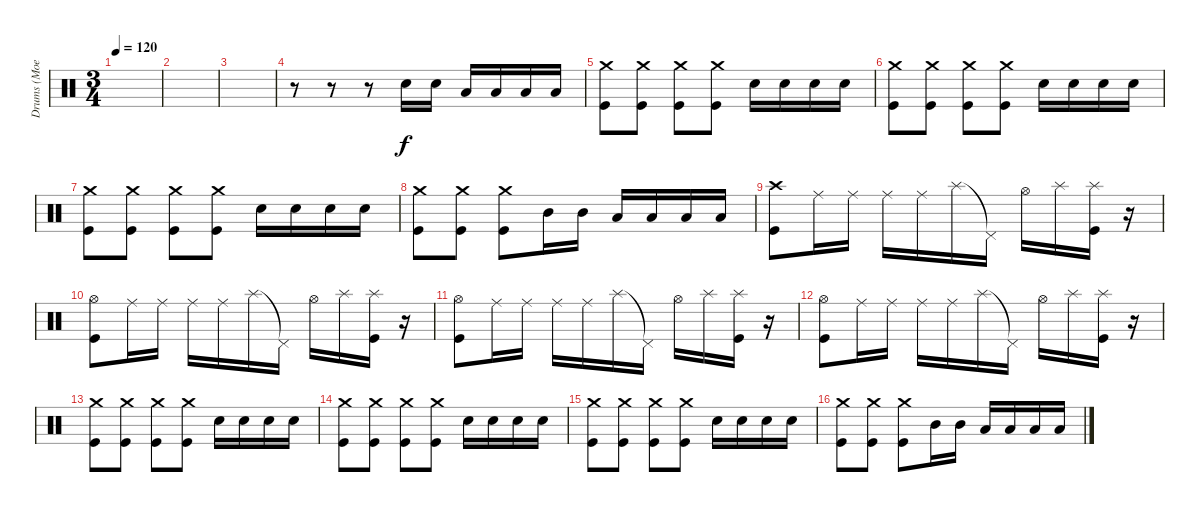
\track ("Drums (Moe)" "Drums (Moe") {instrument percussion}
\staff {score}
\articulation defaults
\ts (3 4)
\tempo 120
\clef neutral
\ks c
|
|
|
r.8 r.8 r.8 "Snare (hit) 2".16 "Snare (hit) 2".16 "Low Tom (hit)".16 "Low Tom (hit)".16 "Low Floor Tom (hit)".16 "Low Floor Tom (hit)".16 |
("Kick (hit)" "Crash medium (hit)").8 ("Kick (hit)" "Crash medium (hit)").8 ("Kick (hit)" "Crash medium (hit)").8 ("Kick (hit)" "Crash medium (hit)").8 "Snare (hit) 2".16 "Snare (hit) 2".16 "Snare (hit) 2".16 "Snare (hit) 2".16 |
("Kick (hit)" "Crash medium (hit)").8 ("Kick (hit)" "Crash medium (hit)").8 ("Kick (hit)" "Crash medium (hit)").8 ("Kick (hit)" "Crash medium (hit)").8 "Snare (hit) 2".16 "Snare (hit) 2".16 "Snare (hit) 2".16 "Snare (hit) 2".16 |
("Kick (hit)" "Crash medium (hit)").8 ("Kick (hit)" "Crash medium (hit)").8 ("Kick (hit)" "Crash medium (hit)").8 ("Kick (hit)" "Crash medium (hit)").8 "Snare (hit) 2".16 "Snare (hit) 2".16 "Snare (hit) 2".16 "Snare (hit) 2".16 |
("Kick (hit)" "Crash medium (hit)").8 ("Kick (hit)" "Crash medium (hit)").8 ("Kick (hit)" "Crash medium (hit)").8 "Mid Tom (hit)".16 "Mid Tom (hit)".16 "Low Tom (hit)".16 "Low Tom (hit)".16 "Low Floor Tom (hit)".16 "Low Floor Tom (hit)".16 |
("Kick (hit)" "Crash high (hit)").8 "Ride (middle)".16 "Ride (middle)".16 "Ride (middle)".16 "Ride (middle)".16 "Splash (hit)".16 "Pedal Hi-Hat (hit)"{t}.16 "Hi-Hat (open)".16 "Splash (hit)".16 ("Kick (hit)" "Splash (hit)").16 r.16 |
("Kick (hit)" "Hi-Hat (open)").8 "Ride (middle)".16 "Ride (middle)".16 "Ride (middle)".16 "Ride (middle)".16 "Splash (hit)".16 "Pedal Hi-Hat (hit)"{t}.16 "Hi-Hat (open)".16 "Splash (hit)".16 ("Kick (hit)" "Splash (hit)").16 r.16 |
("Kick (hit)" "Hi-Hat (open)").8 "Ride (middle)".16 "Ride (middle)".16 "Ride (middle)".16 "Ride (middle)".16 "Splash (hit)".16 "Pedal Hi-Hat (hit)"{t}.16 "Hi-Hat (open)".16 "Splash (hit)".16 ("Kick (hit)" "Splash (hit)").16 r.16 |
("Kick (hit)" "Hi-Hat (open)").8 "Ride (middle)".16 "Ride (middle)".16 "Ride (middle)".16 "Ride (middle)".16 "Splash (hit)".16 "Pedal Hi-Hat (hit)"{t}.16 "Hi-Hat (open)".16 "Splash (hit)".16 ("Kick (hit)" "Splash (hit)").16 r.16 |
("Kick (hit)" "Crash medium (hit)").8 ("Kick (hit)" "Crash medium (hit)").8 ("Kick (hit)" "Crash medium (hit)").8 ("Kick (hit)" "Crash medium (hit)").8 "Snare (hit) 2".16 "Snare (hit) 2".16 "Snare (hit) 2".16 "Snare (hit) 2".16 |
("Kick (hit)" "Crash medium (hit)").8 ("Kick (hit)" "Crash medium (hit)").8 ("Kick (hit)" "Crash medium (hit)").8 ("Kick (hit)" "Crash medium (hit)").8 "Snare (hit) 2".16 "Snare (hit) 2".16 "Snare (hit) 2".16 "Snare (hit) 2".16 |
("Kick (hit)" "Crash medium (hit)").8 ("Kick (hit)" "Crash medium (hit)").8 ("Kick (hit)" "Crash medium (hit)").8 ("Kick (hit)" "Crash medium (hit)").8 "Snare (hit) 2".16 "Snare (hit) 2".16 "Snare (hit) 2".16 "Snare (hit) 2".16 |
("Kick (hit)" "Crash medium (hit)").8 ("Kick (hit)" "Crash medium (hit)").8 ("Kick (hit)" "Crash medium (hit)").8 "Mid Tom (hit)".16 "Mid Tom (hit)".16 "Low Tom (hit)".16 "Low Tom (hit)".16 "Low Floor Tom (hit)".16 "Low Floor Tom (hit)".16
